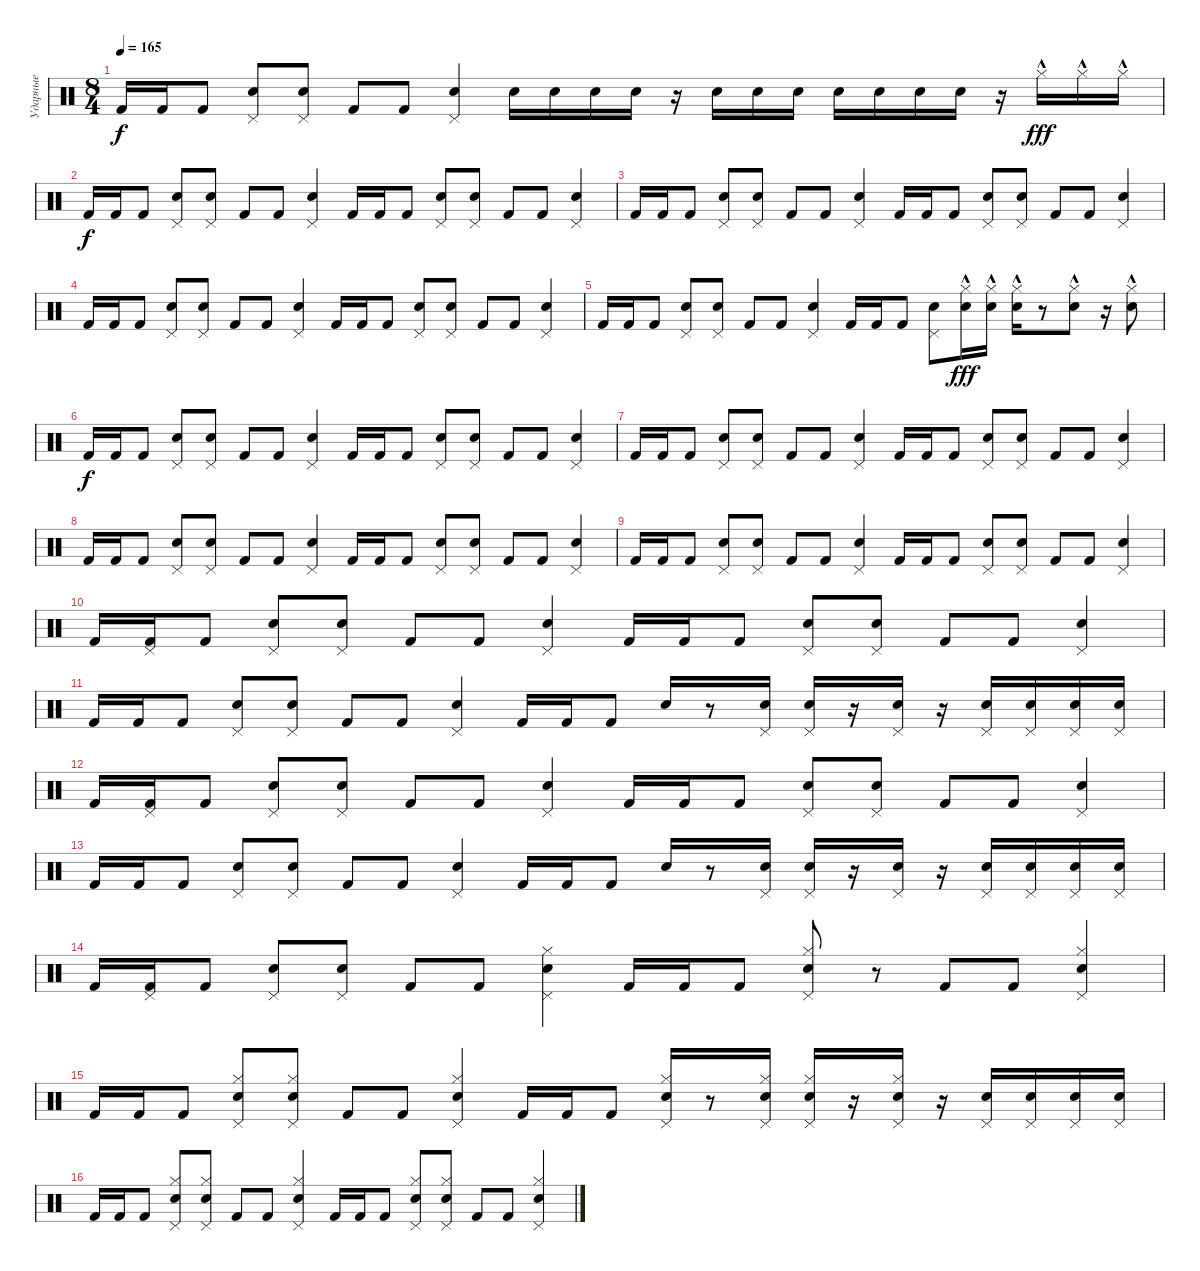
\track ("Ударные" "Ударные") {instrument percussion}
\staff {score}
\articulation defaults
\ts (8 4)
\tempo 165
\clef neutral
\ks c "Kick (hit) 2".16{dy f} "Kick (hit) 2".16 "Kick (hit) 2".8
("Snare (hit) 2" "Pedal Hi-Hat (hit)").8 ("Snare (hit) 2" "Pedal Hi-Hat (hit)").8 "Kick (hit) 2".8 "Kick (hit) 2".8 ("Snare (hit) 2" "Pedal Hi-Hat (hit)").4 "Snare (hit) 2".16 "Snare (hit) 2".16 "Snare (hit) 2".16 "Snare (hit) 2".16 r.16 "Snare (hit) 2".16 "Snare (hit) 2".16 "Snare (hit) 2".16 "Snare (hit) 2".16 "Snare (hit) 2".16 "Snare (hit) 2".16 "Snare (hit) 2".16 r.16 "Hi-Hat (closed)"{hac}.16{dy fff} "Hi-Hat (closed)"{hac}.16 "Hi-Hat (closed)"{hac}.16 |
"Kick (hit) 2".16{dy f} "Kick (hit) 2".16 "Kick (hit) 2".8 ("Snare (hit) 2" "Pedal Hi-Hat (hit)").8 ("Snare (hit) 2" "Pedal Hi-Hat (hit)").8 "Kick (hit) 2".8 "Kick (hit) 2".8 ("Snare (hit) 2" "Pedal Hi-Hat (hit)").4 "Kick (hit) 2".16 "Kick (hit) 2".16 "Kick (hit) 2".8 ("Snare (hit) 2" "Pedal Hi-Hat (hit)").8 ("Snare (hit) 2" "Pedal Hi-Hat (hit)").8 "Kick (hit) 2".8 "Kick (hit) 2".8 ("Snare (hit) 2" "Pedal Hi-Hat (hit)").4 |
"Kick (hit) 2".16 "Kick (hit) 2".16 "Kick (hit) 2".8 ("Snare (hit) 2" "Pedal Hi-Hat (hit)").8 ("Snare (hit) 2" "Pedal Hi-Hat (hit)").8 "Kick (hit) 2".8 "Kick (hit) 2".8 ("Snare (hit) 2" "Pedal Hi-Hat (hit)").4 "Kick (hit) 2".16 "Kick (hit) 2".16 "Kick (hit) 2".8 ("Snare (hit) 2" "Pedal Hi-Hat (hit)").8 ("Snare (hit) 2" "Pedal Hi-Hat (hit)").8 "Kick (hit) 2".8 "Kick (hit) 2".8 ("Snare (hit) 2" "Pedal Hi-Hat (hit)").4 |
"Kick (hit) 2".16 "Kick (hit) 2".16 "Kick (hit) 2".8 ("Snare (hit) 2" "Pedal Hi-Hat (hit)").8 ("Snare (hit) 2" "Pedal Hi-Hat (hit)").8 "Kick (hit) 2".8 "Kick (hit) 2".8 ("Snare (hit) 2" "Pedal Hi-Hat (hit)").4 "Kick (hit) 2".16 "Kick (hit) 2".16 "Kick (hit) 2".8 ("Snare (hit) 2" "Pedal Hi-Hat (hit)").8 ("Snare (hit) 2" "Pedal Hi-Hat (hit)").8 "Kick (hit) 2".8 "Kick (hit) 2".8 ("Snare (hit) 2" "Pedal Hi-Hat (hit)").4 |
"Kick (hit) 2".16 "Kick (hit) 2".16 "Kick (hit) 2".8 ("Snare (hit) 2" "Pedal Hi-Hat (hit)").8 ("Snare (hit) 2" "Pedal Hi-Hat (hit)").8 "Kick (hit) 2".8 "Kick (hit) 2".8 ("Snare (hit) 2" "Pedal Hi-Hat (hit)").4 "Kick (hit) 2".16 "Kick (hit) 2".16 "Kick (hit) 2".8 ("Snare (hit) 2" "Pedal Hi-Hat (hit)").8 ("Hi-Hat (closed)"{hac} "Snare (hit) 2").16{dy fff} ("Hi-Hat (closed)"{hac} "Snare (hit) 2").16 ("Hi-Hat (closed)"{hac} "Snare (hit) 2").16 r.8 ("Hi-Hat (closed)"{hac} "Snare (hit) 2").8 r.16 ("Hi-Hat (closed)"{hac} "Snare (hit) 2").8 |
"Kick (hit) 2".16{dy f} "Kick (hit) 2".16 "Kick (hit) 2".8 ("Snare (hit) 2" "Pedal Hi-Hat (hit)").8 ("Snare (hit) 2" "Pedal Hi-Hat (hit)").8 "Kick (hit) 2".8 "Kick (hit) 2".8 ("Snare (hit) 2" "Pedal Hi-Hat (hit)").4 "Kick (hit) 2".16 "Kick (hit) 2".16 "Kick (hit) 2".8 ("Snare (hit) 2" "Pedal Hi-Hat (hit)").8 ("Snare (hit) 2" "Pedal Hi-Hat (hit)").8 "Kick (hit) 2".8 "Kick (hit) 2".8 ("Snare (hit) 2" "Pedal Hi-Hat (hit)").4 |
"Kick (hit) 2".16 "Kick (hit) 2".16 "Kick (hit) 2".8 ("Snare (hit) 2" "Pedal Hi-Hat (hit)").8 ("Snare (hit) 2" "Pedal Hi-Hat (hit)").8 "Kick (hit) 2".8 "Kick (hit) 2".8 ("Snare (hit) 2" "Pedal Hi-Hat (hit)").4 "Kick (hit) 2".16 "Kick (hit) 2".16 "Kick (hit) 2".8 ("Snare (hit) 2" "Pedal Hi-Hat (hit)").8 ("Snare (hit) 2" "Pedal Hi-Hat (hit)").8 "Kick (hit) 2".8 "Kick (hit) 2".8 ("Snare (hit) 2" "Pedal Hi-Hat (hit)").4 |
"Kick (hit) 2".16 "Kick (hit) 2".16 "Kick (hit) 2".8 ("Snare (hit) 2" "Pedal Hi-Hat (hit)").8 ("Snare (hit) 2" "Pedal Hi-Hat (hit)").8 "Kick (hit) 2".8 "Kick (hit) 2".8 ("Snare (hit) 2" "Pedal Hi-Hat (hit)").4 "Kick (hit) 2".16 "Kick (hit) 2".16 "Kick (hit) 2".8 ("Snare (hit) 2" "Pedal Hi-Hat (hit)").8 ("Snare (hit) 2" "Pedal Hi-Hat (hit)").8 "Kick (hit) 2".8 "Kick (hit) 2".8 ("Snare (hit) 2" "Pedal Hi-Hat (hit)").4 |
"Kick (hit) 2".16 "Kick (hit) 2".16 "Kick (hit) 2".8 ("Snare (hit) 2" "Pedal Hi-Hat (hit)").8 ("Snare (hit) 2" "Pedal Hi-Hat (hit)").8 "Kick (hit) 2".8 "Kick (hit) 2".8 ("Snare (hit) 2" "Pedal Hi-Hat (hit)").4 "Kick (hit) 2".16 "Kick (hit) 2".16 "Kick (hit) 2".8 ("Snare (hit) 2" "Pedal Hi-Hat (hit)").8 ("Snare (hit) 2" "Pedal Hi-Hat (hit)").8 "Kick (hit) 2".8 "Kick (hit) 2".8 ("Snare (hit) 2" "Pedal Hi-Hat (hit)").4 |
"Kick (hit) 2".16 ("Kick (hit) 2" "Pedal Hi-Hat (hit)").16 "Kick (hit) 2".8 ("Snare (hit) 2" "Pedal Hi-Hat (hit)").8 ("Snare (hit) 2" "Pedal Hi-Hat (hit)").8 "Kick (hit) 2".8 "Kick (hit) 2".8 ("Snare (hit) 2" "Pedal Hi-Hat (hit)").4 "Kick (hit) 2".16 "Kick (hit) 2".16 "Kick (hit) 2".8 ("Snare (hit) 2" "Pedal Hi-Hat (hit)").8 ("Snare (hit) 2" "Pedal Hi-Hat (hit)").8 "Kick (hit) 2".8 "Kick (hit) 2".8 ("Snare (hit) 2" "Pedal Hi-Hat (hit)").4 |
"Kick (hit) 2".16 "Kick (hit) 2".16 "Kick (hit) 2".8 ("Snare (hit) 2" "Pedal Hi-Hat (hit)").8 ("Snare (hit) 2" "Pedal Hi-Hat (hit)").8 "Kick (hit) 2".8 "Kick (hit) 2".8 ("Snare (hit) 2" "Pedal Hi-Hat (hit)").4 "Kick (hit) 2".16 "Kick (hit) 2".16 "Kick (hit) 2".8 "Snare (hit) 2".16 r.8 ("Snare (hit) 2" "Pedal Hi-Hat (hit)").16 ("Snare (hit) 2" "Pedal Hi-Hat (hit)").16 r.16 ("Snare (hit) 2" "Pedal Hi-Hat (hit)").16 r.16 ("Snare (hit) 2" "Pedal Hi-Hat (hit)").16 ("Snare (hit) 2" "Pedal Hi-Hat (hit)").16 ("Snare (hit) 2" "Pedal Hi-Hat (hit)").16 ("Snare (hit) 2" "Pedal Hi-Hat (hit)").16 |
"Kick (hit) 2".16 ("Kick (hit) 2" "Pedal Hi-Hat (hit)").16 "Kick (hit) 2".8 ("Snare (hit) 2" "Pedal Hi-Hat (hit)").8 ("Snare (hit) 2" "Pedal Hi-Hat (hit)").8 "Kick (hit) 2".8 "Kick (hit) 2".8 ("Snare (hit) 2" "Pedal Hi-Hat (hit)").4 "Kick (hit) 2".16 "Kick (hit) 2".16 "Kick (hit) 2".8 ("Snare (hit) 2" "Pedal Hi-Hat (hit)").8 ("Snare (hit) 2" "Pedal Hi-Hat (hit)").8 "Kick (hit) 2".8 "Kick (hit) 2".8 ("Snare (hit) 2" "Pedal Hi-Hat (hit)").4 |
"Kick (hit) 2".16 "Kick (hit) 2".16 "Kick (hit) 2".8 ("Snare (hit) 2" "Pedal Hi-Hat (hit)").8 ("Snare (hit) 2" "Pedal Hi-Hat (hit)").8 "Kick (hit) 2".8 "Kick (hit) 2".8 ("Snare (hit) 2" "Pedal Hi-Hat (hit)").4 "Kick (hit) 2".16 "Kick (hit) 2".16 "Kick (hit) 2".8 "Snare (hit) 2".16 r.8 ("Snare (hit) 2" "Pedal Hi-Hat (hit)").16 ("Snare (hit) 2" "Pedal Hi-Hat (hit)").16 r.16 ("Snare (hit) 2" "Pedal Hi-Hat (hit)").16 r.16 ("Snare (hit) 2" "Pedal Hi-Hat (hit)").16 ("Snare (hit) 2" "Pedal Hi-Hat (hit)").16 ("Snare (hit) 2" "Pedal Hi-Hat (hit)").16 ("Snare (hit) 2" "Pedal Hi-Hat (hit)").16 |
"Kick (hit) 2".16 ("Kick (hit) 2" "Pedal Hi-Hat (hit)").16 "Kick (hit) 2".8 ("Snare (hit) 2" "Pedal Hi-Hat (hit)").8 ("Snare (hit) 2" "Pedal Hi-Hat (hit)").8 "Kick (hit) 2".8 "Kick (hit) 2".8 ("Snare (hit) 2" "Hi-Hat (closed)" "Pedal Hi-Hat (hit)").4 "Kick (hit) 2".16 "Kick (hit) 2".16 "Kick (hit) 2".8 ("Electric Snare (hit)" "Hi-Hat (closed)" "Pedal Hi-Hat (hit)").8 r.8 "Kick (hit) 2".8 "Kick (hit) 2".8 ("Electric Snare (hit)" "Hi-Hat (closed)" "Pedal Hi-Hat (hit)").4 |
"Kick (hit) 2".16 "Kick (hit) 2".16 "Kick (hit) 2".8 ("Electric Snare (hit)" "Hi-Hat (closed)" "Pedal Hi-Hat (hit)").8 ("Electric Snare (hit)" "Hi-Hat (closed)" "Pedal Hi-Hat (hit)").8 "Kick (hit) 2".8 "Kick (hit) 2".8 ("Electric Snare (hit)" "Hi-Hat (closed)" "Pedal Hi-Hat (hit)").4 "Kick (hit) 2".16 "Kick (hit) 2".16 "Kick (hit) 2".8 ("Electric Snare (hit)" "Hi-Hat (closed)" "Pedal Hi-Hat (hit)").16 r.8 ("Electric Snare (hit)" "Hi-Hat (closed)" "Pedal Hi-Hat (hit)").16 ("Electric Snare (hit)" "Hi-Hat (closed)" "Pedal Hi-Hat (hit)").16 r.16 ("Electric Snare (hit)" "Hi-Hat (closed)" "Pedal Hi-Hat (hit)").16 r.16 ("Electric Snare (hit)" "Pedal Hi-Hat (hit)").16 ("Electric Snare (hit)" "Pedal Hi-Hat (hit)").16 ("Electric Snare (hit)" "Pedal Hi-Hat (hit)").16 ("Electric Snare (hit)" "Pedal Hi-Hat (hit)").16 |
"Kick (hit) 2".16 "Kick (hit) 2".16 "Kick (hit) 2".8 ("Electric Snare (hit)" "Hi-Hat (closed)" "Pedal Hi-Hat (hit)").8 ("Electric Snare (hit)" "Hi-Hat (closed)" "Pedal Hi-Hat (hit)").8 "Kick (hit) 2".8 "Kick (hit) 2".8 ("Electric Snare (hit)" "Hi-Hat (closed)" "Pedal Hi-Hat (hit)").4 "Kick (hit) 2".16 "Kick (hit) 2".16 "Kick (hit) 2".8 ("Electric Snare (hit)" "Hi-Hat (closed)" "Pedal Hi-Hat (hit)").8 ("Electric Snare (hit)" "Hi-Hat (closed)" "Pedal Hi-Hat (hit)").8 "Kick (hit) 2".8 "Kick (hit) 2".8 ("Electric Snare (hit)" "Hi-Hat (closed)" "Pedal Hi-Hat (hit)").4
